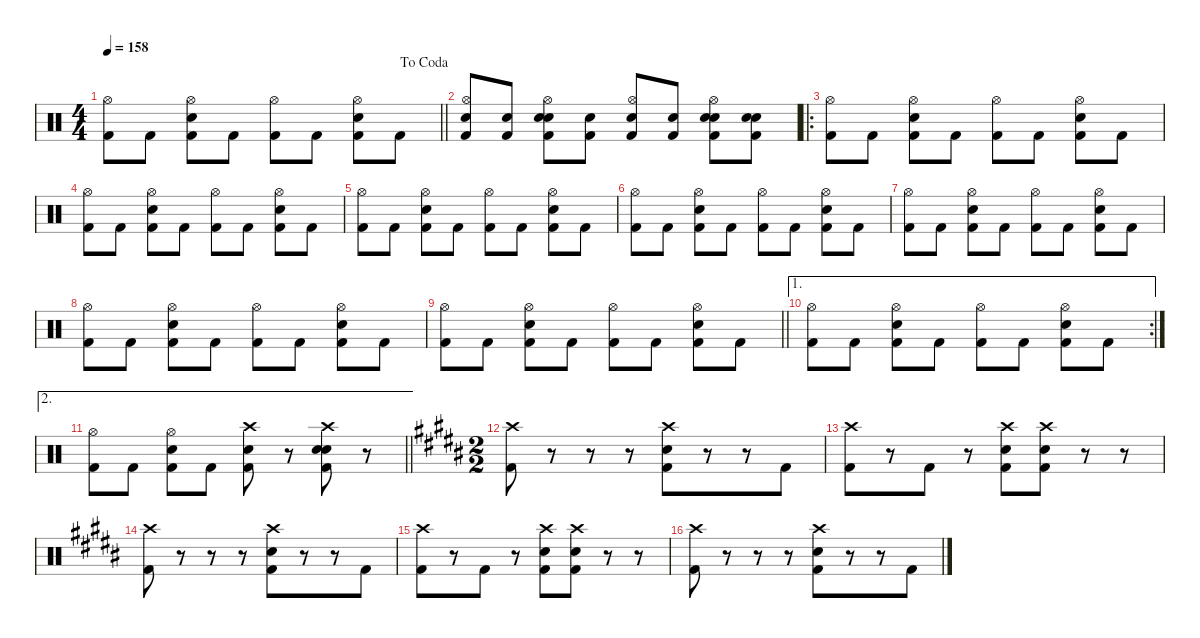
\defaultSystemsLayout 4
\hideDynamics
\bracketExtendMode nobrackets
\singleTrackTrackNamePolicy hidden
\multiTrackTrackNamePolicy hidden
\firstSystemTrackNameMode fullname
\firstSystemTrackNameOrientation horizontal
\otherSystemsTrackNameOrientation horizontal
\track ("Drums" "drm.") {instrument percussion}
\staff {score}
\articulation defaults
\ts (4 4)
\jump dacoda
\tempo 158
\clef neutral
\barLineRight lightlight
\ks c
("Hi-Hat (open)" "Kick (hit) 2").8{dy f beam Down} "Kick (hit) 2".8{beam Down} ("Hi-Hat (open)" "Snare (hit) 2" "Kick (hit) 2").8{beam Down} "Kick (hit) 2".8{beam Down} ("Hi-Hat (open)" "Kick (hit) 2").8{beam Down} "Kick (hit) 2".8{beam Down} ("Hi-Hat (open)" "Kick (hit) 2" "Snare (hit) 2").8{beam Down} "Kick (hit) 2".8{beam Down} |
("Hi-Hat (open)" "Snare (hit) 2" "Kick (hit) 2").8{beam Up} ("Snare (hit) 2" "Kick (hit) 2").8{beam Up} ("Hi-Hat (open)" "Snare (hit) 2" "Snare (hit) 2" "Kick (hit) 2").8{beam Down} ("Snare (hit) 2" "Kick (hit) 2").8{beam Down} ("Hi-Hat (open)" "Snare (hit) 2" "Kick (hit) 2").8{beam Up} ("Snare (hit) 2" "Kick (hit) 2").8{beam Up} ("Hi-Hat (open)" "Snare (hit) 2" "Kick (hit) 2" "Snare (hit) 2").8{beam Down} ("Snare (hit) 2" "Snare (hit) 2" "Kick (hit) 2").8{beam Down} |
\ro
("Hi-Hat (open)" "Kick (hit) 2").8{beam Down} "Kick (hit) 2".8{beam Down} ("Hi-Hat (open)" "Snare (hit) 2" "Kick (hit) 2").8{beam Down} "Kick (hit) 2".8{beam Down} ("Hi-Hat (open)" "Kick (hit) 2").8{beam Down} "Kick (hit) 2".8{beam Down} ("Hi-Hat (open)" "Kick (hit) 2" "Snare (hit) 2").8{beam Down} "Kick (hit) 2".8{beam Down} |
("Hi-Hat (open)" "Kick (hit) 2").8{beam Down} "Kick (hit) 2".8{beam Down} ("Hi-Hat (open)" "Snare (hit) 2" "Kick (hit) 2").8{beam Down} "Kick (hit) 2".8{beam Down} ("Hi-Hat (open)" "Kick (hit) 2").8{beam Down} "Kick (hit) 2".8{beam Down} ("Hi-Hat (open)" "Kick (hit) 2" "Snare (hit) 2").8{beam Down} "Kick (hit) 2".8{beam Down} |
("Hi-Hat (open)" "Kick (hit) 2").8{beam Down} "Kick (hit) 2".8{beam Down} ("Hi-Hat (open)" "Snare (hit) 2" "Kick (hit) 2").8{beam Down} "Kick (hit) 2".8{beam Down} ("Hi-Hat (open)" "Kick (hit) 2").8{beam Down} "Kick (hit) 2".8{beam Down} ("Hi-Hat (open)" "Kick (hit) 2" "Snare (hit) 2").8{beam Down} "Kick (hit) 2".8{beam Down} |
("Hi-Hat (open)" "Kick (hit) 2").8{beam Down} "Kick (hit) 2".8{beam Down} ("Hi-Hat (open)" "Snare (hit) 2" "Kick (hit) 2").8{beam Down} "Kick (hit) 2".8{beam Down} ("Hi-Hat (open)" "Kick (hit) 2").8{beam Down} "Kick (hit) 2".8{beam Down} ("Hi-Hat (open)" "Kick (hit) 2" "Snare (hit) 2").8{beam Down} "Kick (hit) 2".8{beam Down} |
("Hi-Hat (open)" "Kick (hit) 2").8{beam Down} "Kick (hit) 2".8{beam Down} ("Hi-Hat (open)" "Snare (hit) 2" "Kick (hit) 2").8{beam Down} "Kick (hit) 2".8{beam Down} ("Hi-Hat (open)" "Kick (hit) 2").8{beam Down} "Kick (hit) 2".8{beam Down} ("Hi-Hat (open)" "Kick (hit) 2" "Snare (hit) 2").8{beam Down} "Kick (hit) 2".8{beam Down} |
("Hi-Hat (open)" "Kick (hit) 2").8{beam Down} "Kick (hit) 2".8{beam Down} ("Hi-Hat (open)" "Snare (hit) 2" "Kick (hit) 2").8{beam Down} "Kick (hit) 2".8{beam Down} ("Hi-Hat (open)" "Kick (hit) 2").8{beam Down} "Kick (hit) 2".8{beam Down} ("Hi-Hat (open)" "Kick (hit) 2" "Snare (hit) 2").8{beam Down} "Kick (hit) 2".8{beam Down} |
\barLineRight lightlight
("Hi-Hat (open)" "Kick (hit) 2").8{beam Down} "Kick (hit) 2".8{beam Down} ("Hi-Hat (open)" "Snare (hit) 2" "Kick (hit) 2").8{beam Down} "Kick (hit) 2".8{beam Down} ("Hi-Hat (open)" "Kick (hit) 2").8{beam Down} "Kick (hit) 2".8{beam Down} ("Hi-Hat (open)" "Kick (hit) 2" "Snare (hit) 2").8{beam Down} "Kick (hit) 2".8{beam Down} |
\ae 1
\rc 2
("Hi-Hat (open)" "Kick (hit) 2").8{beam Down} "Kick (hit) 2".8{beam Down} ("Hi-Hat (open)" "Snare (hit) 2" "Kick (hit) 2").8{beam Down} "Kick (hit) 2".8{beam Down} ("Hi-Hat (open)" "Kick (hit) 2").8{beam Down} "Kick (hit) 2".8{beam Down} ("Hi-Hat (open)" "Kick (hit) 2" "Snare (hit) 2").8{beam Down} "Kick (hit) 2".8{beam Down} |
\ae 2
\barLineRight lightlight
("Hi-Hat (open)" "Kick (hit) 2").8{beam Down} "Kick (hit) 2".8{beam Down} ("Hi-Hat (open)" "Snare (hit) 2" "Kick (hit) 2").8{beam Down} "Kick (hit) 2".8{beam Down} ("Crash high (hit)" "Snare (hit) 2" "Kick (hit) 2").8{beam Down} r.8{beam Down} ("Crash high (hit)" "Snare (hit) 2" "Kick (hit) 2" "Snare (hit) 2").8{beam Down} r.8{beam Down} |
\ts (2 2)
\beaming (8 4 4)
\ks b
("Crash high (hit)"{acc forcenatural} "Kick (hit) 2"{acc forcenatural}).8{beam Down} r.8{beam Down} r.8{beam Down} r.8{beam Down} ("Crash high (hit)"{acc forcenatural} "Snare (hit) 2"{acc forcenatural} "Kick (hit) 2"{acc forcenatural}).8{beam Down} r.8{beam Down} r.8{beam Down} "Kick (hit) 2"{acc forcenatural}.8{beam Down} |
\ks g#minor
("Crash high (hit)"{acc forcenatural} "Kick (hit) 2"{acc forcenatural}).8{beam Down} r.8{beam Down} "Kick (hit) 2"{acc forcenatural}.8{beam Down} r.8{beam Down} ("Crash high (hit)"{acc forcenatural} "Snare (hit) 2"{acc forcenatural} "Kick (hit) 2"{acc forcenatural}).8{beam Down} ("Crash high (hit)"{acc forcenatural} "Snare (hit) 2"{acc forcenatural} "Kick (hit) 2"{acc forcenatural}).8{beam Down} r.8{beam Down} r.8{beam Down} |
\ks b
("Crash high (hit)"{acc forcenatural} "Kick (hit) 2"{acc forcenatural}).8{beam Down} r.8{beam Down} r.8{beam Down} r.8{beam Down} ("Crash high (hit)"{acc forcenatural} "Snare (hit) 2"{acc forcenatural} "Kick (hit) 2"{acc forcenatural}).8{beam Down} r.8{beam Down} r.8{beam Down} "Kick (hit) 2"{acc forcenatural}.8{beam Down} |
\ks g#minor
("Crash high (hit)"{acc forcenatural} "Kick (hit) 2"{acc forcenatural}).8{beam Down} r.8{beam Down} "Kick (hit) 2"{acc forcenatural}.8{beam Down} r.8{beam Down} ("Crash high (hit)"{acc forcenatural} "Snare (hit) 2"{acc forcenatural} "Kick (hit) 2"{acc forcenatural}).8{beam Down} ("Crash high (hit)"{acc forcenatural} "Snare (hit) 2"{acc forcenatural} "Kick (hit) 2"{acc forcenatural}).8{beam Down} r.8{beam Down} r.8{beam Down} |
\ks b
("Crash high (hit)"{acc forcenatural} "Kick (hit) 2"{acc forcenatural}).8{beam Down} r.8{beam Down} r.8{beam Down} r.8{beam Down} ("Crash high (hit)"{acc forcenatural} "Snare (hit) 2"{acc forcenatural} "Kick (hit) 2"{acc forcenatural}).8{beam Down} r.8{beam Down} r.8{beam Down} "Kick (hit) 2"{acc forcenatural}.8{beam Down}
